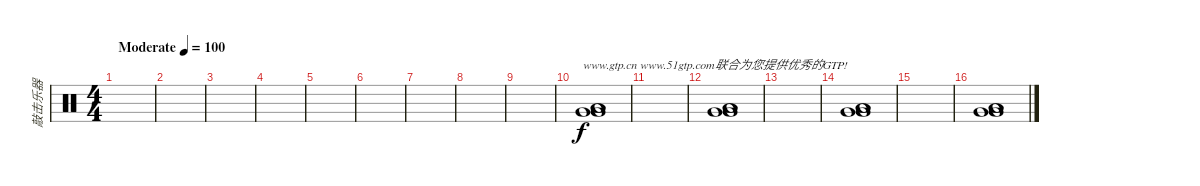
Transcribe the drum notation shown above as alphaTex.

\track ("敲击乐器" "敲击乐器") {instrument percussion}
\staff {score}
\articulation defaults
\ts (4 4)
\tempo (100 "Moderate")
\clef neutral
\ks c
|
|
|
|
|
|
|
|
|
("Very Low Tom (hit)" "Very Low Tom (hit)" "Low Floor Tom (hit)" "Low Floor Tom (hit)").1{txt "www.gtp.cn www.51gtp.com联合为您提供优秀的GTP!"} |
|
("Very Low Tom (hit)" "Very Low Tom (hit)" "Low Floor Tom (hit)" "Low Floor Tom (hit)").1 |
|
("Very Low Tom (hit)" "Very Low Tom (hit)" "Low Floor Tom (hit)" "Low Floor Tom (hit)").1 |
|
("Very Low Tom (hit)" "Very Low Tom (hit)" "Low Floor Tom (hit)" "Low Floor Tom (hit)").1
